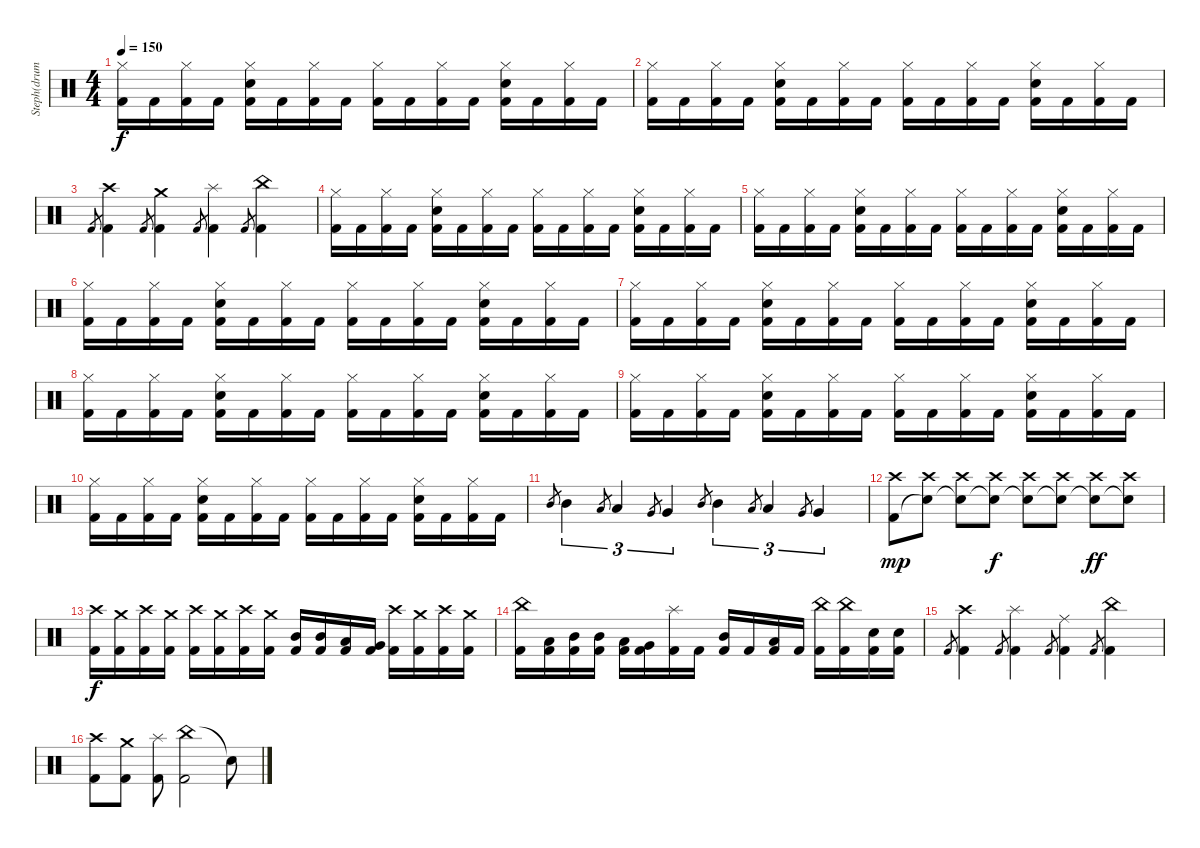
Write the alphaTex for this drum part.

\track ("Steph(drums)" "Steph(drum") {instrument percussion}
\staff {score}
\articulation defaults
\ts (4 4)
\tempo 150
\clef neutral
\ks c
("Hi-Hat (closed)" "Kick (hit) 2").16{dy f} "Kick (hit) 2".16 ("Hi-Hat (closed)" "Kick (hit) 2").16 "Kick (hit) 2".16 ("Hi-Hat (closed)" "Electric Snare (hit)" "Kick (hit) 2").16 "Kick (hit) 2".16 ("Hi-Hat (closed)" "Kick (hit) 2").16 "Kick (hit) 2".16 ("Hi-Hat (closed)" "Kick (hit) 2").16 "Kick (hit) 2".16 ("Hi-Hat (closed)" "Kick (hit) 2").16 "Kick (hit) 2".16 ("Hi-Hat (closed)" "Electric Snare (hit)" "Kick (hit) 2").16 "Kick (hit) 2".16 ("Hi-Hat (closed)" "Kick (hit) 2").16 "Kick (hit) 2".16 |
("Hi-Hat (closed)" "Kick (hit) 2").16 "Kick (hit) 2".16 ("Hi-Hat (closed)" "Kick (hit) 2").16 "Kick (hit) 2".16 ("Hi-Hat (closed)" "Electric Snare (hit)" "Kick (hit) 2").16 "Kick (hit) 2".16 ("Hi-Hat (closed)" "Kick (hit) 2").16 "Kick (hit) 2".16 ("Hi-Hat (closed)" "Kick (hit) 2").16 "Kick (hit) 2".16 ("Hi-Hat (closed)" "Kick (hit) 2").16 "Kick (hit) 2".16 ("Hi-Hat (closed)" "Electric Snare (hit)" "Kick (hit) 2").16 "Kick (hit) 2".16 ("Hi-Hat (closed)" "Kick (hit) 2").16 "Kick (hit) 2".16 |
"Kick (hit) 2".8{gr} ("Crash high (hit)" "Kick (hit) 2").4 "Kick (hit) 2".8{gr} ("Crash medium (hit)" "Kick (hit) 2").4 "Kick (hit) 2".8{gr} ("Splash (hit)" "Kick (hit) 2").4 "Kick (hit) 2".8{gr} ("China (hit)" "Kick (hit) 2").4 |
("Hi-Hat (closed)" "Kick (hit) 2").16 "Kick (hit) 2".16 ("Hi-Hat (closed)" "Kick (hit) 2").16 "Kick (hit) 2".16 ("Hi-Hat (closed)" "Electric Snare (hit)" "Kick (hit) 2").16 "Kick (hit) 2".16 ("Hi-Hat (closed)" "Kick (hit) 2").16 "Kick (hit) 2".16 ("Hi-Hat (closed)" "Kick (hit) 2").16 "Kick (hit) 2".16 ("Hi-Hat (closed)" "Kick (hit) 2").16 "Kick (hit) 2".16 ("Hi-Hat (closed)" "Electric Snare (hit)" "Kick (hit) 2").16 "Kick (hit) 2".16 ("Hi-Hat (closed)" "Kick (hit) 2").16 "Kick (hit) 2".16 |
("Hi-Hat (closed)" "Kick (hit) 2").16 "Kick (hit) 2".16 ("Hi-Hat (closed)" "Kick (hit) 2").16 "Kick (hit) 2".16 ("Hi-Hat (closed)" "Electric Snare (hit)" "Kick (hit) 2").16 "Kick (hit) 2".16 ("Hi-Hat (closed)" "Kick (hit) 2").16 "Kick (hit) 2".16 ("Hi-Hat (closed)" "Kick (hit) 2").16 "Kick (hit) 2".16 ("Hi-Hat (closed)" "Kick (hit) 2").16 "Kick (hit) 2".16 ("Hi-Hat (closed)" "Electric Snare (hit)" "Kick (hit) 2").16 "Kick (hit) 2".16 ("Hi-Hat (closed)" "Kick (hit) 2").16 "Kick (hit) 2".16 |
("Hi-Hat (closed)" "Kick (hit) 2").16 "Kick (hit) 2".16 ("Hi-Hat (closed)" "Kick (hit) 2").16 "Kick (hit) 2".16 ("Hi-Hat (closed)" "Electric Snare (hit)" "Kick (hit) 2").16 "Kick (hit) 2".16 ("Hi-Hat (closed)" "Kick (hit) 2").16 "Kick (hit) 2".16 ("Hi-Hat (closed)" "Kick (hit) 2").16 "Kick (hit) 2".16 ("Hi-Hat (closed)" "Kick (hit) 2").16 "Kick (hit) 2".16 ("Hi-Hat (closed)" "Electric Snare (hit)" "Kick (hit) 2").16 "Kick (hit) 2".16 ("Hi-Hat (closed)" "Kick (hit) 2").16 "Kick (hit) 2".16 |
("Hi-Hat (closed)" "Kick (hit) 2").16 "Kick (hit) 2".16 ("Hi-Hat (closed)" "Kick (hit) 2").16 "Kick (hit) 2".16 ("Hi-Hat (closed)" "Electric Snare (hit)" "Kick (hit) 2").16 "Kick (hit) 2".16 ("Hi-Hat (closed)" "Kick (hit) 2").16 "Kick (hit) 2".16 ("Hi-Hat (closed)" "Kick (hit) 2").16 "Kick (hit) 2".16 ("Hi-Hat (closed)" "Kick (hit) 2").16 "Kick (hit) 2".16 ("Hi-Hat (closed)" "Electric Snare (hit)" "Kick (hit) 2").16 "Kick (hit) 2".16 ("Hi-Hat (closed)" "Kick (hit) 2").16 "Kick (hit) 2".16 |
("Hi-Hat (closed)" "Kick (hit) 2").16 "Kick (hit) 2".16 ("Hi-Hat (closed)" "Kick (hit) 2").16 "Kick (hit) 2".16 ("Hi-Hat (closed)" "Electric Snare (hit)" "Kick (hit) 2").16 "Kick (hit) 2".16 ("Hi-Hat (closed)" "Kick (hit) 2").16 "Kick (hit) 2".16 ("Hi-Hat (closed)" "Kick (hit) 2").16 "Kick (hit) 2".16 ("Hi-Hat (closed)" "Kick (hit) 2").16 "Kick (hit) 2".16 ("Hi-Hat (closed)" "Electric Snare (hit)" "Kick (hit) 2").16 "Kick (hit) 2".16 ("Hi-Hat (closed)" "Kick (hit) 2").16 "Kick (hit) 2".16 |
("Hi-Hat (closed)" "Kick (hit) 2").16 "Kick (hit) 2".16 ("Hi-Hat (closed)" "Kick (hit) 2").16 "Kick (hit) 2".16 ("Hi-Hat (closed)" "Electric Snare (hit)" "Kick (hit) 2").16 "Kick (hit) 2".16 ("Hi-Hat (closed)" "Kick (hit) 2").16 "Kick (hit) 2".16 ("Hi-Hat (closed)" "Kick (hit) 2").16 "Kick (hit) 2".16 ("Hi-Hat (closed)" "Kick (hit) 2").16 "Kick (hit) 2".16 ("Hi-Hat (closed)" "Electric Snare (hit)" "Kick (hit) 2").16 "Kick (hit) 2".16 ("Hi-Hat (closed)" "Kick (hit) 2").16 "Kick (hit) 2".16 |
("Hi-Hat (closed)" "Kick (hit) 2").16 "Kick (hit) 2".16 ("Hi-Hat (closed)" "Kick (hit) 2").16 "Kick (hit) 2".16 ("Hi-Hat (closed)" "Electric Snare (hit)" "Kick (hit) 2").16 "Kick (hit) 2".16 ("Hi-Hat (closed)" "Kick (hit) 2").16 "Kick (hit) 2".16 ("Hi-Hat (closed)" "Kick (hit) 2").16 "Kick (hit) 2".16 ("Hi-Hat (closed)" "Kick (hit) 2").16 "Kick (hit) 2".16 ("Hi-Hat (closed)" "Electric Snare (hit)" "Kick (hit) 2").16 "Kick (hit) 2".16 ("Hi-Hat (closed)" "Kick (hit) 2").16 "Kick (hit) 2".16 |
"Mid Tom (hit)".8{gr} "Mid Tom (hit)".4{tu (3 2)} "Low Tom (hit)".8{gr} "Low Tom (hit)".4{tu (3 2)} "Very Low Tom (hit)".8{gr} "Very Low Tom (hit)".4{tu (3 2)} "Mid Tom (hit)".8{gr} "Mid Tom (hit)".4{tu (3 2)} "Low Tom (hit)".8{gr} "Low Tom (hit)".4{tu (3 2)} "Very Low Tom (hit)".8{gr} "Very Low Tom (hit)".4{tu (3 2)} |
("Crash high (hit)" "Kick (hit) 2").8{dy mp} ("Crash high (hit)" "Snare (hit)"{t}).8 ("Crash high (hit)" "Snare (hit)"{t}).8 ("Crash high (hit)" "Snare (hit)"{t}).8{dy f} ("Crash high (hit)" "Snare (hit)"{t}).8 ("Crash high (hit)" "Snare (hit)"{t}).8 ("Crash high (hit)" "Snare (hit)"{t}).8{dy ff} ("Crash high (hit)" "Snare (hit)"{t}).8 |
("Crash high (hit)" "Kick (hit) 2").16{dy f} ("Crash medium (hit)" "Kick (hit) 2").16 ("Crash high (hit)" "Kick (hit) 2").16 ("Crash medium (hit)" "Kick (hit) 2").16 ("Crash high (hit)" "Kick (hit) 2").16 ("Crash medium (hit)" "Kick (hit) 2").16 ("Crash high (hit)" "Kick (hit) 2").16 ("Crash medium (hit)" "Kick (hit) 2").16 ("Mid Tom (hit)" "Kick (hit) 2").16 ("Mid Tom (hit)" "Kick (hit) 2").16 ("Low Tom (hit)" "Kick (hit) 2").16 ("Very Low Tom (hit)" "Kick (hit) 2").16 ("Crash high (hit)" "Kick (hit) 2").16 ("Crash medium (hit)" "Kick (hit) 2").16 ("Crash high (hit)" "Kick (hit) 2").16 ("Crash medium (hit)" "Kick (hit) 2").16 |
("China (hit)" "Kick (hit) 2").16 ("Low Tom (hit)" "Kick (hit) 2").16 ("Mid Tom (hit)" "Kick (hit) 2").16 ("Mid Tom (hit)" "Kick (hit) 2").16 ("Low Tom (hit)" "Kick (hit) 2").16 ("Very Low Tom (hit)" "Kick (hit) 2").16 ("Splash (hit)" "Kick (hit) 2").16 "Kick (hit) 2".16 ("Mid Tom (hit)" "Kick (hit) 2").16 "Kick (hit) 2".16 ("Low Tom (hit)" "Kick (hit) 2").16 "Kick (hit) 2".16 ("China (hit)" "Kick (hit) 2").16 ("China (hit)" "Kick (hit) 2").16 ("Electric Snare (hit)" "Kick (hit) 2").16 ("Electric Snare (hit)" "Kick (hit) 2").16 |
"Kick (hit) 2".8{gr} ("Crash high (hit)" "Kick (hit) 2").4 "Kick (hit) 2".8{gr} ("Splash (hit)" "Kick (hit) 2").4 "Kick (hit) 2".8{gr} ("Ride (middle)" "Kick (hit) 2").4 "Kick (hit) 2".8{gr} ("China (hit)" "Kick (hit) 2").4 |
("Crash high (hit)" "Kick (hit) 2").8 ("Crash medium (hit)" "Kick (hit) 2").8 ("Splash (hit)" "Kick (hit) 2").8 ("China (hit)" "Kick (hit) 2").2 "Snare (hit)"{t}.8
